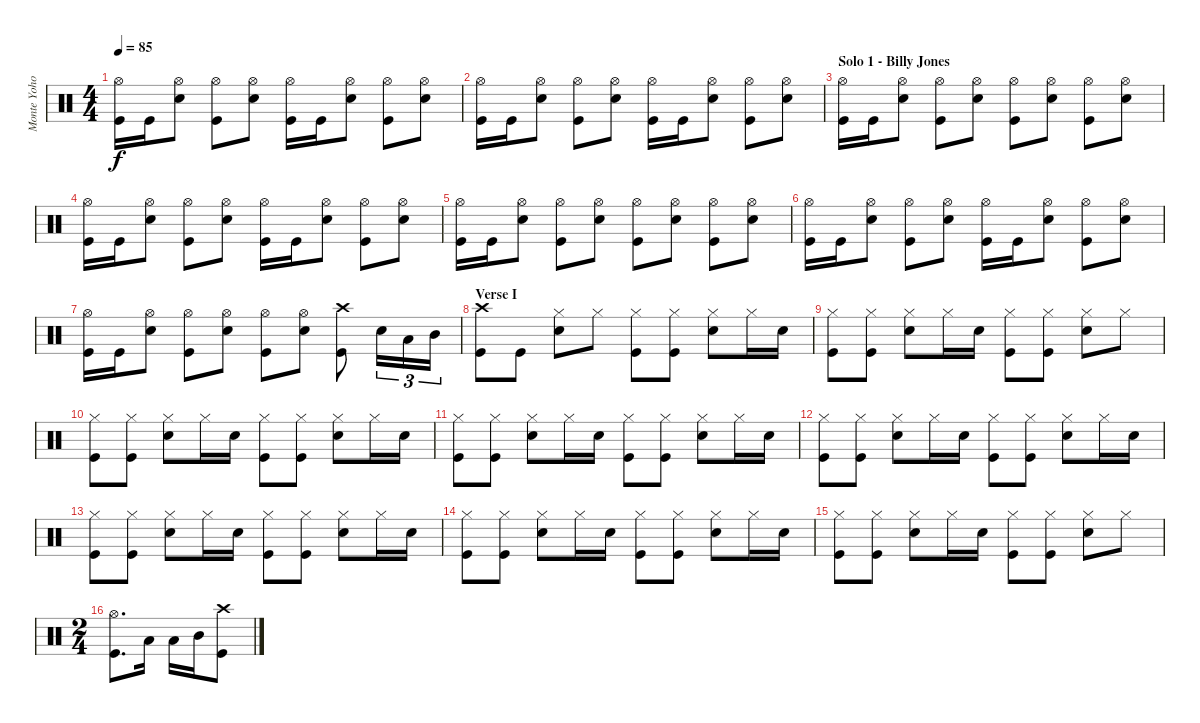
\track ("Monte Yoho - Drums" "Monte Yoho") {instrument percussion}
\staff {score}
\articulation defaults
\ts (4 4)
\tempo 85
\clef neutral
\ks c
("Hi-Hat (open)" "Kick (hit)").16{dy f} "Kick (hit)".16 ("Hi-Hat (open)" "Snare (hit) 2").8 ("Hi-Hat (open)" "Kick (hit)").8 ("Hi-Hat (open)" "Snare (hit) 2").8 ("Hi-Hat (open)" "Kick (hit)").16 "Kick (hit)".16 ("Hi-Hat (open)" "Snare (hit) 2").8 ("Hi-Hat (open)" "Kick (hit)").8 ("Hi-Hat (open)" "Snare (hit) 2").8 |
("Hi-Hat (open)" "Kick (hit)").16 "Kick (hit)".16 ("Hi-Hat (open)" "Snare (hit) 2").8 ("Hi-Hat (open)" "Kick (hit)").8 ("Hi-Hat (open)" "Snare (hit) 2").8 ("Hi-Hat (open)" "Kick (hit)").16 "Kick (hit)".16 ("Hi-Hat (open)" "Snare (hit) 2").8 ("Hi-Hat (open)" "Kick (hit)").8 ("Hi-Hat (open)" "Snare (hit) 2").8 |
\section ("" "Solo 1 - Billy Jones")
("Hi-Hat (open)" "Kick (hit)").16 "Kick (hit)".16 ("Hi-Hat (open)" "Snare (hit) 2").8 ("Hi-Hat (open)" "Kick (hit)").8 ("Hi-Hat (open)" "Snare (hit) 2").8 ("Hi-Hat (open)" "Kick (hit)").8 ("Hi-Hat (open)" "Snare (hit) 2").8 ("Hi-Hat (open)" "Kick (hit)").8 ("Hi-Hat (open)" "Snare (hit) 2").8 |
("Hi-Hat (open)" "Kick (hit)").16 "Kick (hit)".16 ("Hi-Hat (open)" "Snare (hit) 2").8 ("Hi-Hat (open)" "Kick (hit)").8 ("Hi-Hat (open)" "Snare (hit) 2").8 ("Hi-Hat (open)" "Kick (hit)").16 "Kick (hit)".16 ("Hi-Hat (open)" "Snare (hit) 2").8 ("Hi-Hat (open)" "Kick (hit)").8 ("Hi-Hat (open)" "Snare (hit) 2").8 |
("Hi-Hat (open)" "Kick (hit)").16 "Kick (hit)".16 ("Hi-Hat (open)" "Snare (hit) 2").8 ("Hi-Hat (open)" "Kick (hit)").8 ("Hi-Hat (open)" "Snare (hit) 2").8 ("Hi-Hat (open)" "Kick (hit)").8 ("Hi-Hat (open)" "Snare (hit) 2").8 ("Hi-Hat (open)" "Kick (hit)").8 ("Hi-Hat (open)" "Snare (hit) 2").8 |
("Hi-Hat (open)" "Kick (hit)").16 "Kick (hit)".16 ("Hi-Hat (open)" "Snare (hit) 2").8 ("Hi-Hat (open)" "Kick (hit)").8 ("Hi-Hat (open)" "Snare (hit) 2").8 ("Hi-Hat (open)" "Kick (hit)").16 "Kick (hit)".16 ("Hi-Hat (open)" "Snare (hit) 2").8 ("Hi-Hat (open)" "Kick (hit)").8 ("Hi-Hat (open)" "Snare (hit) 2").8 |
("Hi-Hat (open)" "Kick (hit)").16 "Kick (hit)".16 ("Hi-Hat (open)" "Snare (hit) 2").8 ("Hi-Hat (open)" "Kick (hit)").8 ("Hi-Hat (open)" "Snare (hit) 2").8 ("Hi-Hat (open)" "Kick (hit)").8 ("Hi-Hat (open)" "Snare (hit) 2").8 ("Crash high (hit)" "Kick (hit)").8 "Snare (hit) 2".16{tu (3 2)} "Low Tom (hit)".16{tu (3 2)} "Mid Tom (hit)".16{tu (3 2)} |
\section ("" "Verse I")
("Crash high (hit)" "Kick (hit)").8 "Kick (hit)".8 ("Hi-Hat (closed)" "Snare (hit) 2").8 "Hi-Hat (closed)".8 ("Hi-Hat (closed)" "Kick (hit)").8 ("Hi-Hat (closed)" "Kick (hit)").8 ("Hi-Hat (closed)" "Snare (hit) 2").8 "Hi-Hat (closed)".16 "Snare (hit) 2".16 |
("Hi-Hat (closed)" "Kick (hit)").8 ("Hi-Hat (closed)" "Kick (hit)").8 ("Hi-Hat (closed)" "Snare (hit) 2").8 "Hi-Hat (closed)".16 "Snare (hit) 2".16 ("Hi-Hat (closed)" "Kick (hit)").8 ("Hi-Hat (closed)" "Kick (hit)").8 ("Hi-Hat (closed)" "Snare (hit) 2").8 "Hi-Hat (closed)".8 |
("Hi-Hat (closed)" "Kick (hit)").8 ("Hi-Hat (closed)" "Kick (hit)").8 ("Hi-Hat (closed)" "Snare (hit) 2").8 "Hi-Hat (closed)".16 "Snare (hit) 2".16 ("Hi-Hat (closed)" "Kick (hit)").8 ("Hi-Hat (closed)" "Kick (hit)").8 ("Hi-Hat (closed)" "Snare (hit) 2").8 "Hi-Hat (closed)".16 "Snare (hit) 2".16 |
("Hi-Hat (closed)" "Kick (hit)").8 ("Hi-Hat (closed)" "Kick (hit)").8 ("Hi-Hat (closed)" "Snare (hit) 2").8 "Hi-Hat (closed)".16 "Snare (hit) 2".16 ("Hi-Hat (closed)" "Kick (hit)").8 ("Hi-Hat (closed)" "Kick (hit)").8 ("Hi-Hat (closed)" "Snare (hit) 2").8 "Hi-Hat (closed)".16 "Snare (hit) 2".16 |
("Hi-Hat (closed)" "Kick (hit)").8 ("Hi-Hat (closed)" "Kick (hit)").8 ("Hi-Hat (closed)" "Snare (hit) 2").8 "Hi-Hat (closed)".16 "Snare (hit) 2".16 ("Hi-Hat (closed)" "Kick (hit)").8 ("Hi-Hat (closed)" "Kick (hit)").8 ("Hi-Hat (closed)" "Snare (hit) 2").8 "Hi-Hat (closed)".16 "Snare (hit) 2".16 |
("Hi-Hat (closed)" "Kick (hit)").8 ("Hi-Hat (closed)" "Kick (hit)").8 ("Hi-Hat (closed)" "Snare (hit) 2").8 "Hi-Hat (closed)".16 "Snare (hit) 2".16 ("Hi-Hat (closed)" "Kick (hit)").8 ("Hi-Hat (closed)" "Kick (hit)").8 ("Hi-Hat (closed)" "Snare (hit) 2").8 "Hi-Hat (closed)".16 "Snare (hit) 2".16 |
("Hi-Hat (closed)" "Kick (hit)").8 ("Hi-Hat (closed)" "Kick (hit)").8 ("Hi-Hat (closed)" "Snare (hit) 2").8 "Hi-Hat (closed)".16 "Snare (hit) 2".16 ("Hi-Hat (closed)" "Kick (hit)").8 ("Hi-Hat (closed)" "Kick (hit)").8 ("Hi-Hat (closed)" "Snare (hit) 2").8 "Hi-Hat (closed)".16 "Snare (hit) 2".16 |
("Hi-Hat (closed)" "Kick (hit)").8 ("Hi-Hat (closed)" "Kick (hit)").8 ("Hi-Hat (closed)" "Snare (hit) 2").8 "Hi-Hat (closed)".16 "Snare (hit) 2".16 ("Hi-Hat (closed)" "Kick (hit)").8 ("Hi-Hat (closed)" "Kick (hit)").8 ("Hi-Hat (closed)" "Snare (hit) 2").8 "Hi-Hat (closed)".8 |
\ts (2 4)
("Hi-Hat (open)" "Kick (hit)").8{d} "Low Tom (hit)".16 "Low Tom (hit)".16 "Mid Tom (hit)".16 ("Crash high (hit)" "Kick (hit)").8
